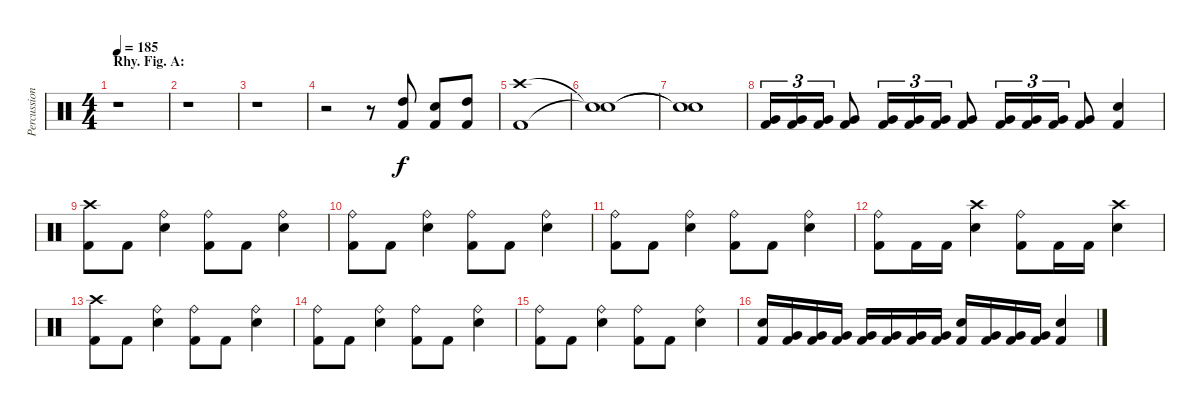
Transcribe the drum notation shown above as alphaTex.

\track ("Percussion" "Percussion") {instrument percussion}
\staff {score}
\articulation defaults
\ts (4 4)
\section ("" "Rhy. Fig. A:")
\tempo 185
\clef neutral
\ks c
r.1{dy f} |
r.1 |
r.1 |
r.2 r.8 ("High Tom (hit)" "Kick (hit) 2").8 ("Snare (hit) 2" "Kick (hit) 2").8 ("High Tom (hit)" "Kick (hit) 2").8 |
("Crash high (hit)" "Kick (hit) 2").1 |
("Snare (hit)"{t} "Snare (hit)"{t}).1 |
("Snare (hit)"{t} "Snare (hit)"{t}).1 |
("Very Low Tom (hit)" "Kick (hit) 2").16{tu (3 2)} ("Very Low Tom (hit)" "Kick (hit) 2").16{tu (3 2)} ("Very Low Tom (hit)" "Kick (hit) 2").16{tu (3 2)} ("Very Low Tom (hit)" "Kick (hit) 2").8 ("Very Low Tom (hit)" "Kick (hit) 2").16{tu (3 2)} ("Very Low Tom (hit)" "Kick (hit) 2").16{tu (3 2)} ("Very Low Tom (hit)" "Kick (hit) 2").16{tu (3 2)} ("Very Low Tom (hit)" "Kick (hit) 2").8 ("Very Low Tom (hit)" "Kick (hit) 2").16{tu (3 2)} ("Very Low Tom (hit)" "Kick (hit) 2").16{tu (3 2)} ("Very Low Tom (hit)" "Kick (hit) 2").16{tu (3 2)} ("Very Low Tom (hit)" "Kick (hit) 2").8 ("Snare (hit) 2" "Kick (hit) 2").4 |
("Crash high (hit)" "Kick (hit) 2").8 "Kick (hit) 2".8 ("Ride (bell)" "Snare (hit) 2").4 ("Ride (bell)" "Kick (hit) 2").8 "Kick (hit) 2".8 ("Ride (bell)" "Snare (hit) 2").4 |
("Ride (bell)" "Kick (hit) 2").8 "Kick (hit) 2".8 ("Ride (bell)" "Snare (hit) 2").4 ("Ride (bell)" "Kick (hit) 2").8 "Kick (hit) 2".8 ("Ride (bell)" "Snare (hit) 2").4 |
("Ride (bell)" "Kick (hit) 2").8 "Kick (hit) 2".8 ("Ride (bell)" "Snare (hit) 2").4 ("Ride (bell)" "Kick (hit) 2").8 "Kick (hit) 2".8 ("Ride (bell)" "Snare (hit) 2").4 |
("Ride (bell)" "Kick (hit) 2").8 "Kick (hit) 2".16 "Kick (hit) 2".16 ("Crash high (hit)" "Snare (hit) 2").4 ("Ride (bell)" "Kick (hit) 2").8 "Kick (hit) 2".16 "Kick (hit) 2".16 ("Crash high (hit)" "Snare (hit) 2").4 |
("Crash high (hit)" "Kick (hit) 2").8 "Kick (hit) 2".8 ("Ride (bell)" "Snare (hit) 2").4 ("Ride (bell)" "Kick (hit) 2").8 "Kick (hit) 2".8 ("Ride (bell)" "Snare (hit) 2").4 |
("Ride (bell)" "Kick (hit) 2").8 "Kick (hit) 2".8 ("Ride (bell)" "Snare (hit) 2").4 ("Ride (bell)" "Kick (hit) 2").8 "Kick (hit) 2".8 ("Ride (bell)" "Snare (hit) 2").4 |
("Ride (bell)" "Kick (hit) 2").8 "Kick (hit) 2".8 ("Ride (bell)" "Snare (hit) 2").4 ("Ride (bell)" "Kick (hit) 2").8 "Kick (hit) 2".8 ("Ride (bell)" "Snare (hit) 2").4 |
("Snare (hit) 2" "Kick (hit) 2").16 ("Very Low Tom (hit)" "Kick (hit) 2").16 ("Very Low Tom (hit)" "Kick (hit) 2").16 ("Very Low Tom (hit)" "Kick (hit) 2").16 ("Very Low Tom (hit)" "Kick (hit) 2").16 ("Very Low Tom (hit)" "Kick (hit) 2").16 ("Very Low Tom (hit)" "Kick (hit) 2").16 ("Very Low Tom (hit)" "Kick (hit) 2").16 ("Snare (hit) 2" "Kick (hit) 2").16 ("Very Low Tom (hit)" "Kick (hit) 2").16 ("Very Low Tom (hit)" "Kick (hit) 2").16 ("Very Low Tom (hit)" "Kick (hit) 2").16 ("Snare (hit) 2" "Kick (hit) 2").4
